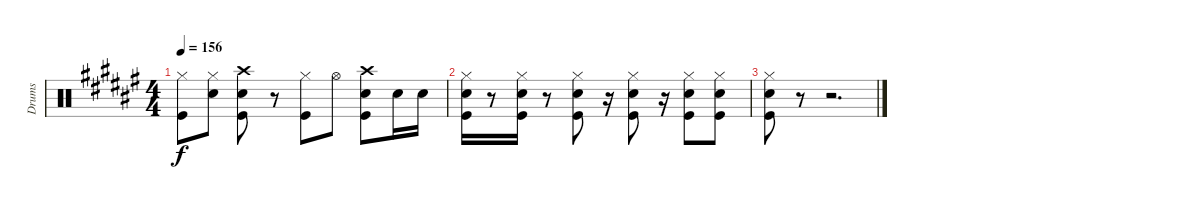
\track ("Drums" "Drums") {instrument percussion}
\staff {score}
\articulation defaults
\ts (4 4)
\tempo 156
\clef neutral
\ks f#
("Hi-Hat (closed)" "Kick (hit)").8{dy f} ("Hi-Hat (closed)" "Snare (hit) 2").8 ("Crash high (hit)" "Snare (hit) 2" "Kick (hit)").8 r.8 ("Hi-Hat (closed)" "Kick (hit)").8 "Hi-Hat (open)".8 ("Crash high (hit)" "Snare (hit) 2" "Kick (hit)").8 "Snare (hit) 2".16 "Snare (hit) 2".16 |
("Hi-Hat (closed)" "Snare (hit) 2" "Kick (hit)").16 r.8 ("Hi-Hat (closed)" "Snare (hit) 2" "Kick (hit)").16 r.8 ("Hi-Hat (closed)" "Snare (hit) 2" "Kick (hit)").8 r.16 ("Hi-Hat (closed)" "Snare (hit) 2" "Kick (hit)").8 r.16 ("Hi-Hat (closed)" "Snare (hit) 2" "Kick (hit)").8 ("Hi-Hat (closed)" "Snare (hit) 2" "Kick (hit)").8 |
("Hi-Hat (closed)" "Snare (hit) 2" "Kick (hit)").8 r.8 r.2{d}
